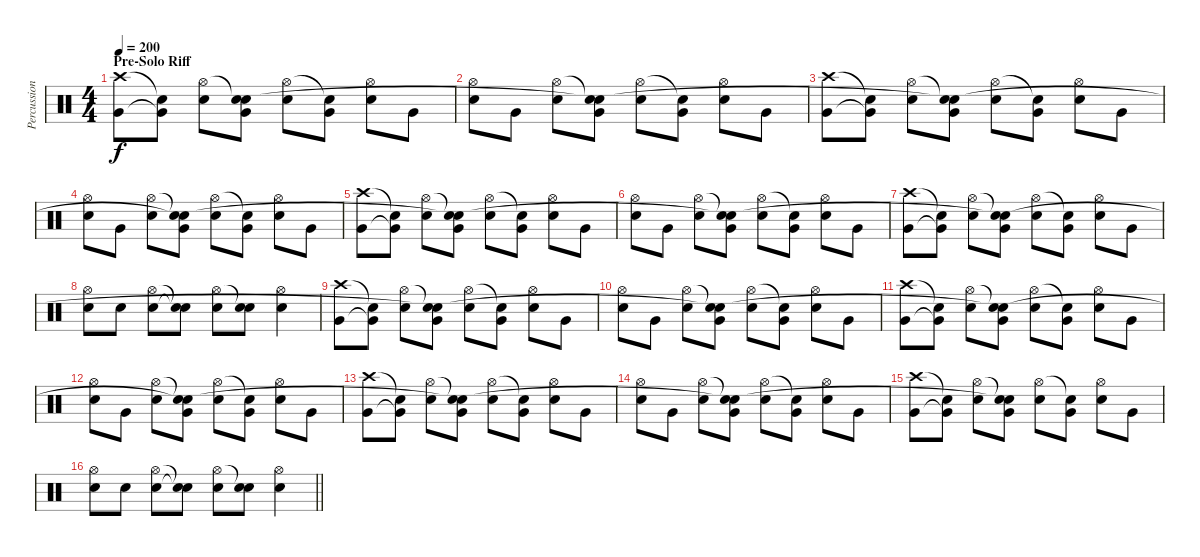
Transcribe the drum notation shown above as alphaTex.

\track ("Percussion" "Percussion") {instrument percussion}
\staff {score}
\articulation defaults
\ts (4 4)
\section ("" "Pre-Solo Riff ")
\tempo 200
\clef neutral
\ks c
("Very Low Tom (hit)" "Crash high (hit)").8{dy f} ("Very Low Tom (hit)"{t} "Snare (hit)"{t}).8 ("Snare (hit) 2" "Hi-Hat (open)").8 ("Very Low Tom (hit)" "Snare (hit)"{t} "Snare (hit)").8 ("Snare (hit) 2" "Hi-Hat (open)").8 ("Very Low Tom (hit)" "Snare (hit)"{t}).8 ("Snare (hit) 2" "Hi-Hat (open)").8 "Very Low Tom (hit)".8 |
("Snare (hit) 2" "Hi-Hat (open)").8 "Very Low Tom (hit)".8 ("Snare (hit) 2" "Hi-Hat (open)").8 ("Very Low Tom (hit)" "Snare (hit)"{t} "Snare (hit)"{t}).8 ("Snare (hit) 2" "Hi-Hat (open)").8 ("Very Low Tom (hit)" "Snare (hit)"{t}).8 ("Snare (hit) 2" "Hi-Hat (open)").8 "Very Low Tom (hit)".8 |
("Very Low Tom (hit)" "Crash high (hit)").8 ("Very Low Tom (hit)"{t} "Snare (hit)"{t}).8 ("Snare (hit) 2" "Hi-Hat (open)").8 ("Very Low Tom (hit)" "Snare (hit)"{t} "Snare (hit)"{t}).8 ("Snare (hit) 2" "Hi-Hat (open)").8 ("Very Low Tom (hit)" "Snare (hit)"{t}).8 ("Snare (hit) 2" "Hi-Hat (open)").8 "Very Low Tom (hit)".8 |
("Snare (hit) 2" "Hi-Hat (open)").8 "Very Low Tom (hit)".8 ("Snare (hit) 2" "Hi-Hat (open)").8 ("Very Low Tom (hit)" "Snare (hit)"{t} "Snare (hit)"{t}).8 ("Snare (hit) 2" "Hi-Hat (open)").8 ("Very Low Tom (hit)" "Snare (hit)"{t}).8 ("Snare (hit) 2" "Hi-Hat (open)").8 "Very Low Tom (hit)".8 |
("Very Low Tom (hit)" "Crash high (hit)").8 ("Very Low Tom (hit)"{t} "Snare (hit)"{t}).8 ("Snare (hit) 2" "Hi-Hat (open)").8 ("Very Low Tom (hit)" "Snare (hit)"{t} "Snare (hit)"{t}).8 ("Snare (hit) 2" "Hi-Hat (open)").8 ("Very Low Tom (hit)" "Snare (hit)"{t}).8 ("Snare (hit) 2" "Hi-Hat (open)").8 "Very Low Tom (hit)".8 |
("Snare (hit) 2" "Hi-Hat (open)").8 "Very Low Tom (hit)".8 ("Snare (hit) 2" "Hi-Hat (open)").8 ("Very Low Tom (hit)" "Snare (hit)"{t} "Snare (hit)"{t}).8 ("Snare (hit) 2" "Hi-Hat (open)").8 ("Very Low Tom (hit)" "Snare (hit)"{t}).8 ("Snare (hit) 2" "Hi-Hat (open)").8 "Very Low Tom (hit)".8 |
("Very Low Tom (hit)" "Crash high (hit)").8 ("Very Low Tom (hit)"{t} "Snare (hit)"{t}).8 ("Snare (hit) 2" "Hi-Hat (open)").8 ("Very Low Tom (hit)" "Snare (hit)"{t} "Snare (hit)"{t}).8 ("Snare (hit) 2" "Hi-Hat (open)").8 ("Very Low Tom (hit)" "Snare (hit)"{t}).8 ("Snare (hit) 2" "Hi-Hat (open)").8 "Very Low Tom (hit)".8 |
("Snare (hit) 2" "Hi-Hat (open)").8 "Snare (hit) 2".8 ("Snare (hit) 2" "Hi-Hat (open)").8 ("Snare (hit)"{t} "Snare (hit)"{t}).8 ("Snare (hit) 2" "Hi-Hat (open)").8 ("Snare (hit) 2" "Snare (hit)"{t}).8 ("Snare (hit) 2" "Hi-Hat (open)").4 |
("Very Low Tom (hit)" "Crash high (hit)").8 ("Very Low Tom (hit)"{t} "Snare (hit)"{t}).8 ("Snare (hit) 2" "Hi-Hat (open)").8 ("Very Low Tom (hit)" "Snare (hit)"{t} "Snare (hit)"{t}).8 ("Snare (hit) 2" "Hi-Hat (open)").8 ("Very Low Tom (hit)" "Snare (hit)"{t}).8 ("Snare (hit) 2" "Hi-Hat (open)").8 "Very Low Tom (hit)".8 |
("Snare (hit) 2" "Hi-Hat (open)").8 "Very Low Tom (hit)".8 ("Snare (hit) 2" "Hi-Hat (open)").8 ("Very Low Tom (hit)" "Snare (hit)"{t} "Snare (hit)"{t}).8 ("Snare (hit) 2" "Hi-Hat (open)").8 ("Very Low Tom (hit)" "Snare (hit)"{t}).8 ("Snare (hit) 2" "Hi-Hat (open)").8 "Very Low Tom (hit)".8 |
("Very Low Tom (hit)" "Crash high (hit)").8 ("Very Low Tom (hit)"{t} "Snare (hit)"{t}).8 ("Snare (hit) 2" "Hi-Hat (open)").8 ("Very Low Tom (hit)" "Snare (hit)"{t} "Snare (hit)"{t}).8 ("Snare (hit) 2" "Hi-Hat (open)").8 ("Very Low Tom (hit)" "Snare (hit)"{t}).8 ("Snare (hit) 2" "Hi-Hat (open)").8 "Very Low Tom (hit)".8 |
("Snare (hit) 2" "Hi-Hat (open)").8 "Very Low Tom (hit)".8 ("Snare (hit) 2" "Hi-Hat (open)").8 ("Very Low Tom (hit)" "Snare (hit)"{t} "Snare (hit)"{t}).8 ("Snare (hit) 2" "Hi-Hat (open)").8 ("Very Low Tom (hit)" "Snare (hit)"{t}).8 ("Snare (hit) 2" "Hi-Hat (open)").8 "Very Low Tom (hit)".8 |
("Very Low Tom (hit)" "Crash high (hit)").8 ("Very Low Tom (hit)"{t} "Snare (hit)"{t}).8 ("Snare (hit) 2" "Hi-Hat (open)").8 ("Very Low Tom (hit)" "Snare (hit)"{t} "Snare (hit)"{t}).8 ("Snare (hit) 2" "Hi-Hat (open)").8 ("Very Low Tom (hit)" "Snare (hit)"{t}).8 ("Snare (hit) 2" "Hi-Hat (open)").8 "Very Low Tom (hit)".8 |
("Snare (hit) 2" "Hi-Hat (open)").8 "Very Low Tom (hit)".8 ("Snare (hit) 2" "Hi-Hat (open)").8 ("Very Low Tom (hit)" "Snare (hit)"{t} "Snare (hit)"{t}).8 ("Snare (hit) 2" "Hi-Hat (open)").8 ("Very Low Tom (hit)" "Snare (hit)"{t}).8 ("Snare (hit) 2" "Hi-Hat (open)").8 "Very Low Tom (hit)".8 |
("Very Low Tom (hit)" "Crash high (hit)").8 ("Very Low Tom (hit)"{t} "Snare (hit)"{t}).8 ("Snare (hit) 2" "Hi-Hat (open)").8 ("Very Low Tom (hit)" "Snare (hit)"{t} "Snare (hit)"{t}).8 ("Snare (hit) 2" "Hi-Hat (open)").8 ("Very Low Tom (hit)" "Snare (hit)"{t}).8 ("Snare (hit) 2" "Hi-Hat (open)").8 "Very Low Tom (hit)".8 |
\barLineRight lightlight
("Snare (hit) 2" "Hi-Hat (open)").8 "Snare (hit) 2".8 ("Snare (hit) 2" "Hi-Hat (open)").8 ("Snare (hit)"{t} "Snare (hit)"{t}).8 ("Snare (hit) 2" "Hi-Hat (open)").8 ("Snare (hit) 2" "Snare (hit)"{t}).8 ("Snare (hit) 2" "Hi-Hat (open)").4
